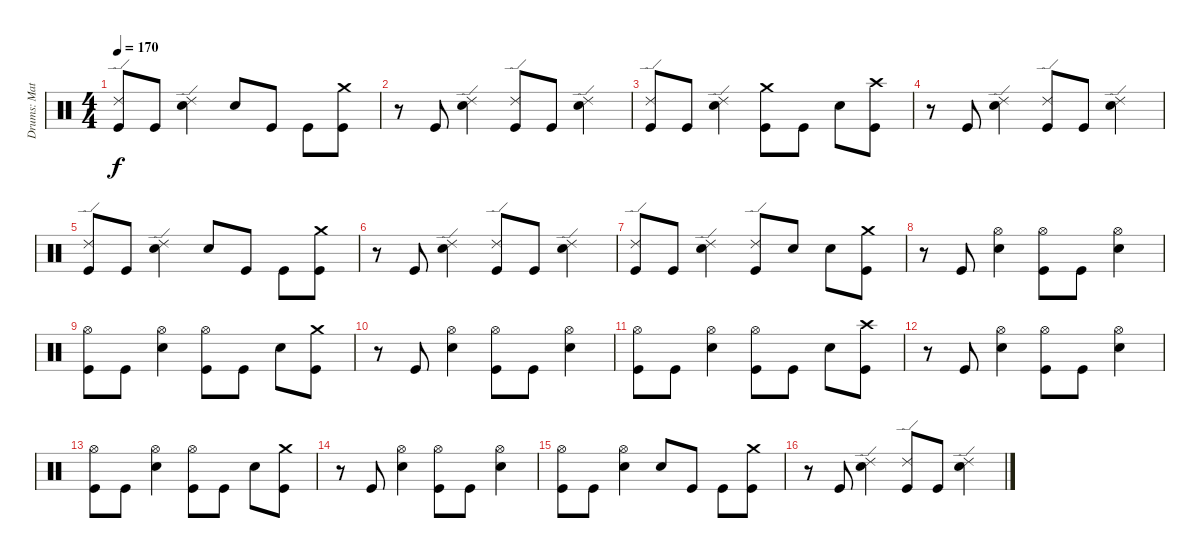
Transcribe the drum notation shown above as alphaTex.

\track ("Drums: Matt" "Drums: Mat") {instrument percussion}
\staff {score}
\articulation defaults
\ts (4 4)
\tempo 170
\clef neutral
\ks c
("Kick (hit)" "Ride (edge) 2").8{dy f} "Kick (hit)".8 ("Ride (edge) 2" "Snare (hit) 2").4 "Snare (hit) 2".8 "Kick (hit)".8 "Kick (hit)".8 ("Crash medium (hit)" "Kick (hit)").8 |
r.8 "Kick (hit)".8 ("Snare (hit) 2" "Ride (edge) 2").4 ("Ride (edge) 2" "Kick (hit)").8 "Kick (hit)".8 ("Snare (hit) 2" "Ride (edge) 2").4 |
("Ride (edge) 2" "Kick (hit)").8 "Kick (hit)".8 ("Ride (edge) 2" "Snare (hit) 2").4 ("Crash medium (hit)" "Kick (hit)").8 "Kick (hit)".8 "Snare (hit) 2".8 ("Crash high (hit)" "Kick (hit)").8 |
r.8 "Kick (hit)".8 ("Ride (edge) 2" "Snare (hit) 2").4 ("Ride (edge) 2" "Kick (hit)").8 "Kick (hit)".8 ("Ride (edge) 2" "Snare (hit) 2").4 |
("Kick (hit)" "Ride (edge) 2").8 "Kick (hit)".8 ("Ride (edge) 2" "Snare (hit) 2").4 "Snare (hit) 2".8 "Kick (hit)".8 "Kick (hit)".8 ("Crash medium (hit)" "Kick (hit)").8 |
r.8 "Kick (hit)".8 ("Ride (edge) 2" "Snare (hit) 2").4 ("Ride (edge) 2" "Kick (hit)").8 "Kick (hit)".8 ("Ride (edge) 2" "Snare (hit) 2").4 |
("Ride (edge) 2" "Kick (hit)").8 "Kick (hit)".8 ("Ride (edge) 2" "Snare (hit) 2").4 ("Ride (edge) 2" "Kick (hit)").8 "Snare (hit) 2".8 "Snare (hit) 2".8 ("Kick (hit)" "Crash medium (hit)").8 |
r.8 "Kick (hit)".8 ("Snare (hit) 2" "Hi-Hat (open)").4 ("Kick (hit)" "Hi-Hat (open)").8 "Kick (hit)".8 ("Hi-Hat (open)" "Snare (hit) 2").4 |
("Hi-Hat (open)" "Kick (hit)").8 "Kick (hit)".8 ("Snare (hit) 2" "Hi-Hat (open)").4 ("Hi-Hat (open)" "Kick (hit)").8 "Kick (hit)".8 "Snare (hit) 2".8 ("Kick (hit)" "Crash medium (hit)").8 |
r.8 "Kick (hit)".8 ("Hi-Hat (open)" "Snare (hit) 2").4 ("Hi-Hat (open)" "Kick (hit)").8 "Kick (hit)".8 ("Hi-Hat (open)" "Snare (hit) 2").4 |
("Kick (hit)" "Hi-Hat (open)").8 "Kick (hit)".8 ("Snare (hit) 2" "Hi-Hat (open)").4 ("Kick (hit)" "Hi-Hat (open)").8 "Kick (hit)".8 "Snare (hit) 2".8 ("Kick (hit)" "Crash high (hit)").8 |
r.8 "Kick (hit)".8 ("Hi-Hat (open)" "Snare (hit) 2").4 ("Kick (hit)" "Hi-Hat (open)").8 "Kick (hit)".8 ("Snare (hit) 2" "Hi-Hat (open)").4 |
("Hi-Hat (open)" "Kick (hit)").8 "Kick (hit)".8 ("Hi-Hat (open)" "Snare (hit) 2").4 ("Hi-Hat (open)" "Kick (hit)").8 "Kick (hit)".8 "Snare (hit) 2".8 ("Kick (hit)" "Crash medium (hit)").8 |
r.8 "Kick (hit)".8 ("Snare (hit) 2" "Hi-Hat (open)").4 ("Hi-Hat (open)" "Kick (hit)").8 "Kick (hit)".8 ("Snare (hit) 2" "Hi-Hat (open)").4 |
("Kick (hit)" "Hi-Hat (open)").8 "Kick (hit)".8 ("Hi-Hat (open)" "Snare (hit) 2").4 "Snare (hit) 2".8 "Kick (hit)".8 "Kick (hit)".8 ("Crash medium (hit)" "Kick (hit)").8 |
r.8 "Kick (hit)".8 ("Ride (edge) 2" "Snare (hit) 2").4 ("Kick (hit)" "Ride (edge) 2").8 "Kick (hit)".8 ("Snare (hit) 2" "Ride (edge) 2").4
